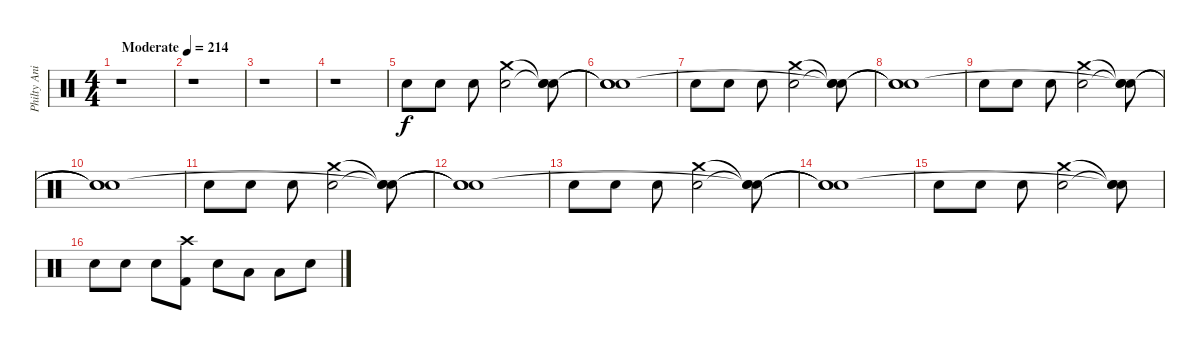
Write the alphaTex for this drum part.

\track ("Philty Animal" "Philty Ani") {instrument percussion}
\staff {score}
\articulation defaults
\ts (4 4)
\tempo (214 "Moderate")
\clef neutral
\ks c
r.1{dy f} |
r.1 |
r.1 |
r.1 |
"Snare (hit) 2".8 "Snare (hit) 2".8 "Snare (hit) 2".8 ("Crash medium (hit)" "Snare (hit) 2").2 ("Snare (hit)"{t} "Snare (hit)"{t} "Snare (hit)").8 |
("Snare (hit)"{t} "Snare (hit)"{t} "Snare (hit)"{t}).1 |
"Snare (hit) 2".8 "Snare (hit) 2".8 "Snare (hit) 2".8 ("Crash medium (hit)" "Snare (hit) 2").2 ("Snare (hit)"{t} "Snare (hit)"{t} "Snare (hit)"{t}).8 |
("Snare (hit)"{t} "Snare (hit)"{t} "Snare (hit)"{t}).1 |
"Snare (hit) 2".8 "Snare (hit) 2".8 "Snare (hit) 2".8 ("Crash medium (hit)" "Snare (hit) 2").2 ("Snare (hit)"{t} "Snare (hit)"{t} "Snare (hit)"{t}).8 |
("Snare (hit)"{t} "Snare (hit)"{t} "Snare (hit)"{t}).1 |
"Snare (hit) 2".8 "Snare (hit) 2".8 "Snare (hit) 2".8 ("Crash medium (hit)" "Snare (hit) 2").2 ("Snare (hit)"{t} "Snare (hit)"{t} "Snare (hit)"{t}).8 |
("Snare (hit)"{t} "Snare (hit)"{t} "Snare (hit)"{t}).1 |
"Snare (hit) 2".8 "Snare (hit) 2".8 "Snare (hit) 2".8 ("Crash medium (hit)" "Snare (hit) 2").2 ("Snare (hit)"{t} "Snare (hit)"{t} "Snare (hit)"{t}).8 |
("Snare (hit)"{t} "Snare (hit)"{t} "Snare (hit)"{t}).1 |
"Snare (hit) 2".8 "Snare (hit) 2".8 "Snare (hit) 2".8 ("Crash medium (hit)" "Snare (hit) 2").2 ("Snare (hit)"{t} "Snare (hit)"{t} "Snare (hit)"{t}).8 |
"Snare (hit) 2".8 "Snare (hit) 2".8 "Snare (hit) 2".8 ("Crash high (hit)" "Kick (hit) 2").8 "Snare (hit) 2".8 "Low Tom (hit)".8 "Low Tom (hit)".8 "Snare (hit) 2".8
